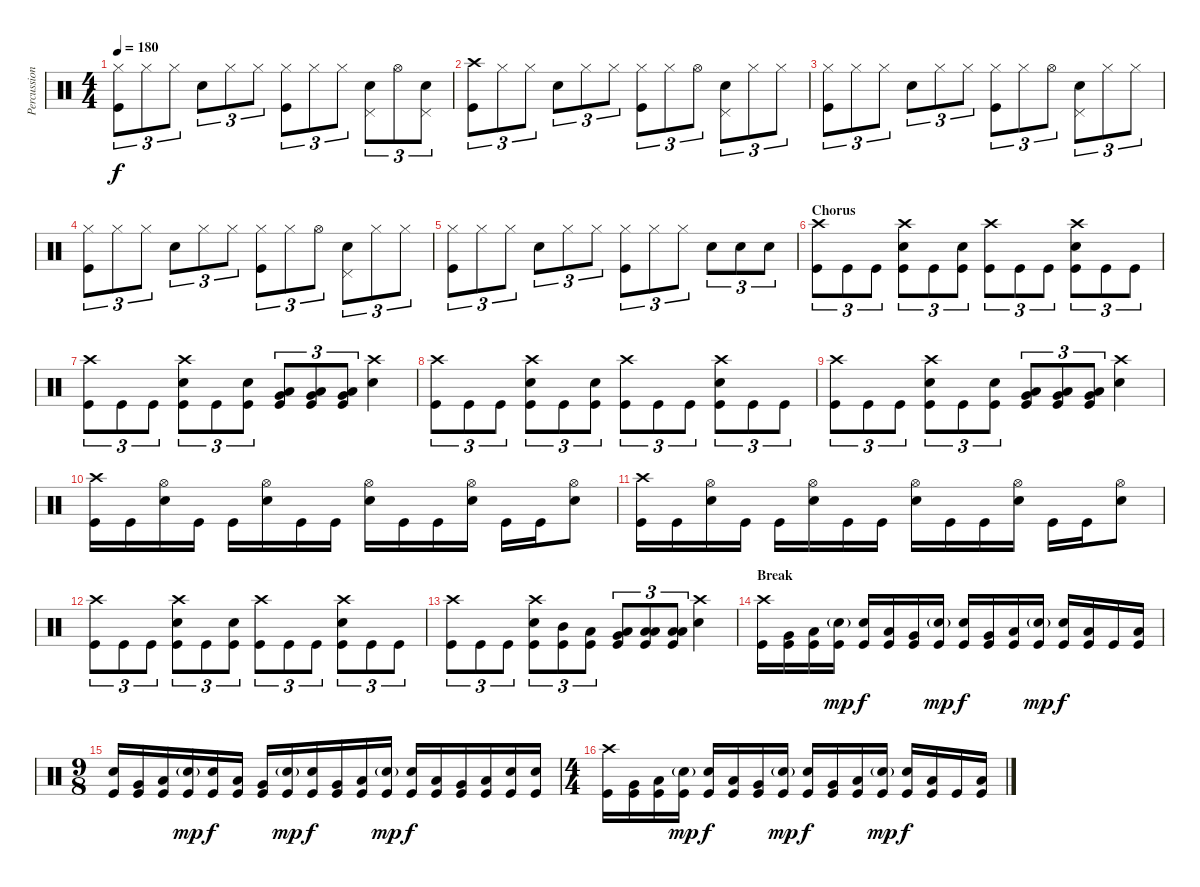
\track ("Percussions" "Percussion") {instrument percussion}
\staff {score}
\articulation defaults
\ts (4 4)
\tempo 180
\clef neutral
\ks c
("Hi-Hat (closed)" "Kick (hit)").8{tu (3 2) dy f} "Hi-Hat (closed)".8{tu (3 2)} "Hi-Hat (closed)".8{tu (3 2)} "Electric Snare (hit)".8{tu (3 2)} "Hi-Hat (closed)".8{tu (3 2)} "Hi-Hat (closed)".8{tu (3 2)} ("Hi-Hat (closed)" "Kick (hit)").8{tu (3 2)} "Hi-Hat (closed)".8{tu (3 2)} "Hi-Hat (closed)".8{tu (3 2)} ("Pedal Hi-Hat (hit)" "Electric Snare (hit)").8{tu (3 2)} "Hi-Hat (open)".8{tu (3 2)} ("Pedal Hi-Hat (hit)" "Electric Snare (hit)").8{tu (3 2)} |
("Crash high (hit)" "Kick (hit)").8{tu (3 2)} "Hi-Hat (closed)".8{tu (3 2)} "Hi-Hat (closed)".8{tu (3 2)} "Electric Snare (hit)".8{tu (3 2)} "Hi-Hat (closed)".8{tu (3 2)} "Hi-Hat (closed)".8{tu (3 2)} ("Hi-Hat (closed)" "Kick (hit)").8{tu (3 2)} "Hi-Hat (closed)".8{tu (3 2)} "Hi-Hat (open)".8{tu (3 2)} ("Pedal Hi-Hat (hit)" "Electric Snare (hit)").8{tu (3 2)} "Hi-Hat (closed)".8{tu (3 2)} "Hi-Hat (closed)".8{tu (3 2)} |
("Hi-Hat (closed)" "Kick (hit)").8{tu (3 2)} "Hi-Hat (closed)".8{tu (3 2)} "Hi-Hat (closed)".8{tu (3 2)} "Electric Snare (hit)".8{tu (3 2)} "Hi-Hat (closed)".8{tu (3 2)} "Hi-Hat (closed)".8{tu (3 2)} ("Hi-Hat (closed)" "Kick (hit)").8{tu (3 2)} "Hi-Hat (closed)".8{tu (3 2)} "Hi-Hat (open)".8{tu (3 2)} ("Pedal Hi-Hat (hit)" "Electric Snare (hit)").8{tu (3 2)} "Hi-Hat (closed)".8{tu (3 2)} "Hi-Hat (closed)".8{tu (3 2)} |
("Hi-Hat (closed)" "Kick (hit)").8{tu (3 2)} "Hi-Hat (closed)".8{tu (3 2)} "Hi-Hat (closed)".8{tu (3 2)} "Electric Snare (hit)".8{tu (3 2)} "Hi-Hat (closed)".8{tu (3 2)} "Hi-Hat (closed)".8{tu (3 2)} ("Hi-Hat (closed)" "Kick (hit)").8{tu (3 2)} "Hi-Hat (closed)".8{tu (3 2)} "Hi-Hat (open)".8{tu (3 2)} ("Pedal Hi-Hat (hit)" "Electric Snare (hit)").8{tu (3 2)} "Hi-Hat (closed)".8{tu (3 2)} "Hi-Hat (closed)".8{tu (3 2)} |
("Hi-Hat (closed)" "Kick (hit)").8{tu (3 2)} "Hi-Hat (closed)".8{tu (3 2)} "Hi-Hat (closed)".8{tu (3 2)} "Electric Snare (hit)".8{tu (3 2)} "Hi-Hat (closed)".8{tu (3 2)} "Hi-Hat (closed)".8{tu (3 2)} ("Hi-Hat (closed)" "Kick (hit)").8{tu (3 2)} "Hi-Hat (closed)".8{tu (3 2)} "Hi-Hat (closed)".8{tu (3 2)} "Electric Snare (hit)".8{tu (3 2)} "Electric Snare (hit)".8{tu (3 2)} "Electric Snare (hit)".8{tu (3 2)} |
\section ("" "Chorus")
("Crash high (hit)" "Kick (hit)").8{tu (3 2)} "Kick (hit)".8{tu (3 2)} "Kick (hit)".8{tu (3 2)} ("Crash high (hit)" "Electric Snare (hit)" "Kick (hit)").8{tu (3 2)} "Kick (hit)".8{tu (3 2)} ("Electric Snare (hit)" "Kick (hit)").8{tu (3 2)} ("Crash high (hit)" "Kick (hit)").8{tu (3 2)} "Kick (hit)".8{tu (3 2)} "Kick (hit)".8{tu (3 2)} ("Crash high (hit)" "Electric Snare (hit)" "Kick (hit)").8{tu (3 2)} "Kick (hit)".8{tu (3 2)} "Kick (hit)".8{tu (3 2)} |
("Crash high (hit)" "Kick (hit)").8{tu (3 2)} "Kick (hit)".8{tu (3 2)} "Kick (hit)".8{tu (3 2)} ("Crash high (hit)" "Electric Snare (hit)" "Kick (hit)").8{tu (3 2)} "Kick (hit)".8{tu (3 2)} ("Electric Snare (hit)" "Kick (hit)").8{tu (3 2)} ("Very Low Tom (hit)" "Low Floor Tom (hit)" "Kick (hit)").8{tu (3 2)} ("Very Low Tom (hit)" "Low Floor Tom (hit)" "Kick (hit)").8{tu (3 2)} ("Very Low Tom (hit)" "Low Floor Tom (hit)" "Kick (hit)").8{tu (3 2)} ("Crash high (hit)" "Electric Snare (hit)").4 |
("Crash high (hit)" "Kick (hit)").8{tu (3 2)} "Kick (hit)".8{tu (3 2)} "Kick (hit)".8{tu (3 2)} ("Crash high (hit)" "Electric Snare (hit)" "Kick (hit)").8{tu (3 2)} "Kick (hit)".8{tu (3 2)} ("Electric Snare (hit)" "Kick (hit)").8{tu (3 2)} ("Crash high (hit)" "Kick (hit)").8{tu (3 2)} "Kick (hit)".8{tu (3 2)} "Kick (hit)".8{tu (3 2)} ("Crash high (hit)" "Electric Snare (hit)" "Kick (hit)").8{tu (3 2)} "Kick (hit)".8{tu (3 2)} "Kick (hit)".8{tu (3 2)} |
("Crash high (hit)" "Kick (hit)").8{tu (3 2)} "Kick (hit)".8{tu (3 2)} "Kick (hit)".8{tu (3 2)} ("Crash high (hit)" "Electric Snare (hit)" "Kick (hit)").8{tu (3 2)} "Kick (hit)".8{tu (3 2)} ("Electric Snare (hit)" "Kick (hit)").8{tu (3 2)} ("Very Low Tom (hit)" "Low Floor Tom (hit)" "Kick (hit)").8{tu (3 2)} ("Very Low Tom (hit)" "Low Floor Tom (hit)" "Kick (hit)").8{tu (3 2)} ("Very Low Tom (hit)" "Low Floor Tom (hit)" "Kick (hit)").8{tu (3 2)} ("Crash high (hit)" "Electric Snare (hit)").4 |
("Crash high (hit)" "Kick (hit)").16 "Kick (hit)".16 ("Hi-Hat (open)" "Electric Snare (hit)").16 "Kick (hit)".16 "Kick (hit)".16 ("Hi-Hat (open)" "Electric Snare (hit)").16 "Kick (hit)".16 "Kick (hit)".16 ("Hi-Hat (open)" "Electric Snare (hit)").16 "Kick (hit)".16 "Kick (hit)".16 ("Hi-Hat (open)" "Electric Snare (hit)").16 "Kick (hit)".16 "Kick (hit)".16 ("Hi-Hat (open)" "Electric Snare (hit)").8 |
("Crash high (hit)" "Kick (hit)").16 "Kick (hit)".16 ("Hi-Hat (open)" "Electric Snare (hit)").16 "Kick (hit)".16 "Kick (hit)".16 ("Hi-Hat (open)" "Electric Snare (hit)").16 "Kick (hit)".16 "Kick (hit)".16 ("Hi-Hat (open)" "Electric Snare (hit)").16 "Kick (hit)".16 "Kick (hit)".16 ("Hi-Hat (open)" "Electric Snare (hit)").16 "Kick (hit)".16 "Kick (hit)".16 ("Hi-Hat (open)" "Electric Snare (hit)").8 |
("Crash high (hit)" "Kick (hit)").8{tu (3 2)} "Kick (hit)".8{tu (3 2)} "Kick (hit)".8{tu (3 2)} ("Crash high (hit)" "Electric Snare (hit)" "Kick (hit)").8{tu (3 2)} "Kick (hit)".8{tu (3 2)} ("Electric Snare (hit)" "Kick (hit)").8{tu (3 2)} ("Crash high (hit)" "Kick (hit)").8{tu (3 2)} "Kick (hit)".8{tu (3 2)} "Kick (hit)".8{tu (3 2)} ("Crash high (hit)" "Electric Snare (hit)" "Kick (hit)").8{tu (3 2)} "Kick (hit)".8{tu (3 2)} "Kick (hit)".8{tu (3 2)} |
("Crash high (hit)" "Kick (hit)").8{tu (3 2)} "Kick (hit)".8{tu (3 2)} "Kick (hit)".8{tu (3 2)} ("Crash high (hit)" "Electric Snare (hit)" "Kick (hit)").8{tu (3 2)} ("Mid Tom (hit)" "Kick (hit)").8{tu (3 2)} ("Low Tom (hit)" "Kick (hit)").8{tu (3 2)} ("Very Low Tom (hit)" "Low Floor Tom (hit)" "Kick (hit)").8{tu (3 2)} ("Low Floor Tom (hit)" "Low Floor Tom (hit)" "Kick (hit)").8{tu (3 2)} ("Low Floor Tom (hit)" "Low Floor Tom (hit)" "Kick (hit)").8{tu (3 2)} ("Crash high (hit)" "Electric Snare (hit)").4 |
\section ("" "Break")
("Crash high (hit)" "Kick (hit)").16 ("Very Low Tom (hit)" "Kick (hit)").16 ("Low Floor Tom (hit)" "Kick (hit)").16 ("Electric Snare (hit)"{g} "Kick (hit)").16{dy mp} ("Electric Snare (hit)" "Kick (hit)").16{dy f} ("Low Tom (hit)" "Kick (hit)").16 ("Very Low Tom (hit)" "Kick (hit)").16 ("Electric Snare (hit)"{g} "Kick (hit)").16{dy mp} ("Electric Snare (hit)" "Kick (hit)").16{dy f} ("Very Low Tom (hit)" "Kick (hit)").16 ("Low Floor Tom (hit)" "Kick (hit)").16 ("Electric Snare (hit)"{g} "Kick (hit)").16{dy mp} ("Electric Snare (hit)" "Kick (hit)").16{dy f} ("Low Tom (hit)" "Kick (hit)").16 "Kick (hit)".16 ("Low Floor Tom (hit)" "Kick (hit)").16 |
\ts (9 8)
("Electric Snare (hit)" "Kick (hit)").16 ("Very Low Tom (hit)" "Kick (hit)").16 ("Low Floor Tom (hit)" "Kick (hit)").16 ("Electric Snare (hit)"{g} "Kick (hit)").16{dy mp} ("Electric Snare (hit)" "Kick (hit)").16{dy f} ("Low Tom (hit)" "Kick (hit)").16 ("Very Low Tom (hit)" "Kick (hit)").16 ("Electric Snare (hit)"{g} "Kick (hit)").16{dy mp} ("Electric Snare (hit)" "Kick (hit)").16{dy f} ("Very Low Tom (hit)" "Kick (hit)").16 ("Low Floor Tom (hit)" "Kick (hit)").16 ("Electric Snare (hit)"{g} "Kick (hit)").16{dy mp} ("Electric Snare (hit)" "Kick (hit)").16{dy f} ("Low Tom (hit)" "Kick (hit)").16 ("Very Low Tom (hit)" "Kick (hit)").16 ("Low Floor Tom (hit)" "Kick (hit)").16 ("Electric Snare (hit)" "Kick (hit)").16 ("Electric Snare (hit)" "Kick (hit)").16 |
\ts (4 4)
("Crash high (hit)" "Kick (hit)").16 ("Very Low Tom (hit)" "Kick (hit)").16 ("Low Floor Tom (hit)" "Kick (hit)").16 ("Electric Snare (hit)"{g} "Kick (hit)").16{dy mp} ("Electric Snare (hit)" "Kick (hit)").16{dy f} ("Low Tom (hit)" "Kick (hit)").16 ("Very Low Tom (hit)" "Kick (hit)").16 ("Electric Snare (hit)"{g} "Kick (hit)").16{dy mp} ("Electric Snare (hit)" "Kick (hit)").16{dy f} ("Very Low Tom (hit)" "Kick (hit)").16 ("Low Floor Tom (hit)" "Kick (hit)").16 ("Electric Snare (hit)"{g} "Kick (hit)").16{dy mp} ("Electric Snare (hit)" "Kick (hit)").16{dy f} ("Low Tom (hit)" "Kick (hit)").16 "Kick (hit)".16 ("Low Floor Tom (hit)" "Kick (hit)").16
